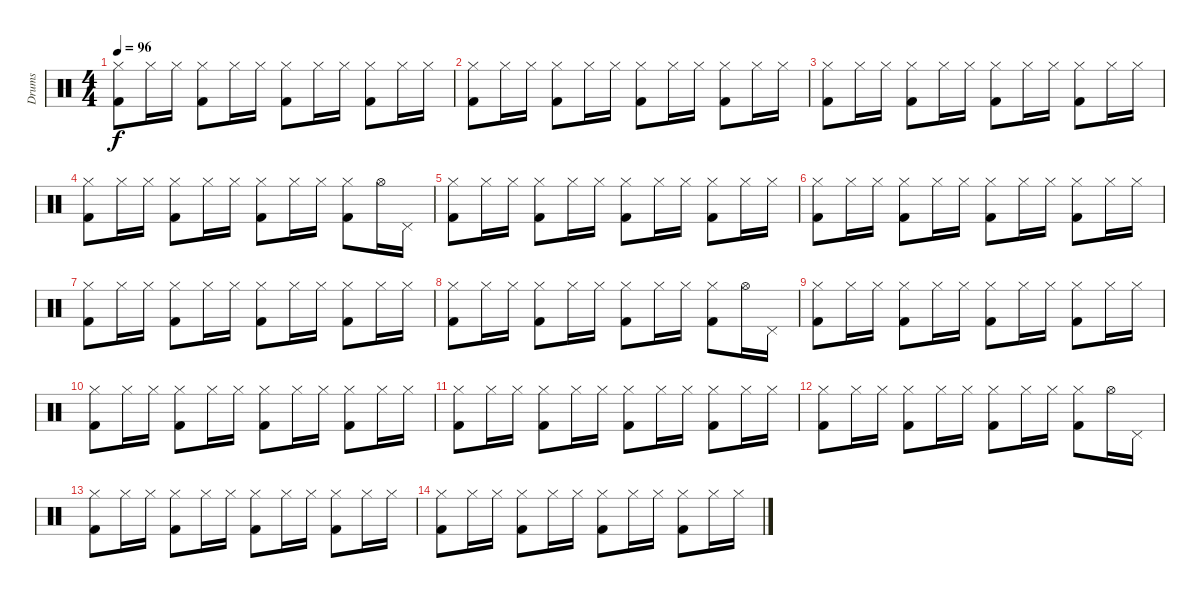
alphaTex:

\track ("Drums" "Drums") {instrument percussion}
\staff {score}
\articulation defaults
\ts (4 4)
\tempo 96
\clef neutral
\ks c
("Hi-Hat (closed)" "Kick (hit) 2").8{dy f} "Hi-Hat (closed)".16 "Hi-Hat (closed)".16 ("Hi-Hat (closed)" "Kick (hit) 2").8 "Hi-Hat (closed)".16 "Hi-Hat (closed)".16 ("Hi-Hat (closed)" "Kick (hit) 2").8 "Hi-Hat (closed)".16 "Hi-Hat (closed)".16 ("Hi-Hat (closed)" "Kick (hit) 2").8 "Hi-Hat (closed)".16 "Hi-Hat (closed)".16 |
("Hi-Hat (closed)" "Kick (hit) 2").8 "Hi-Hat (closed)".16 "Hi-Hat (closed)".16 ("Hi-Hat (closed)" "Kick (hit) 2").8 "Hi-Hat (closed)".16 "Hi-Hat (closed)".16 ("Hi-Hat (closed)" "Kick (hit) 2").8 "Hi-Hat (closed)".16 "Hi-Hat (closed)".16 ("Hi-Hat (closed)" "Kick (hit) 2").8 "Hi-Hat (closed)".16 "Hi-Hat (closed)".16 |
("Hi-Hat (closed)" "Kick (hit) 2").8 "Hi-Hat (closed)".16 "Hi-Hat (closed)".16 ("Hi-Hat (closed)" "Kick (hit) 2").8 "Hi-Hat (closed)".16 "Hi-Hat (closed)".16 ("Hi-Hat (closed)" "Kick (hit) 2").8 "Hi-Hat (closed)".16 "Hi-Hat (closed)".16 ("Hi-Hat (closed)" "Kick (hit) 2").8 "Hi-Hat (closed)".16 "Hi-Hat (closed)".16 |
("Hi-Hat (closed)" "Kick (hit) 2").8 "Hi-Hat (closed)".16 "Hi-Hat (closed)".16 ("Hi-Hat (closed)" "Kick (hit) 2").8 "Hi-Hat (closed)".16 "Hi-Hat (closed)".16 ("Hi-Hat (closed)" "Kick (hit) 2").8 "Hi-Hat (closed)".16 "Hi-Hat (closed)".16 ("Hi-Hat (closed)" "Kick (hit) 2").8 "Hi-Hat (open)".16 "Pedal Hi-Hat (hit)".16 |
("Hi-Hat (closed)" "Kick (hit) 2").8 "Hi-Hat (closed)".16 "Hi-Hat (closed)".16 ("Hi-Hat (closed)" "Kick (hit) 2").8 "Hi-Hat (closed)".16 "Hi-Hat (closed)".16 ("Hi-Hat (closed)" "Kick (hit) 2").8 "Hi-Hat (closed)".16 "Hi-Hat (closed)".16 ("Hi-Hat (closed)" "Kick (hit) 2").8 "Hi-Hat (closed)".16 "Hi-Hat (closed)".16 |
("Hi-Hat (closed)" "Kick (hit) 2").8 "Hi-Hat (closed)".16 "Hi-Hat (closed)".16 ("Hi-Hat (closed)" "Kick (hit) 2").8 "Hi-Hat (closed)".16 "Hi-Hat (closed)".16 ("Hi-Hat (closed)" "Kick (hit) 2").8 "Hi-Hat (closed)".16 "Hi-Hat (closed)".16 ("Hi-Hat (closed)" "Kick (hit) 2").8 "Hi-Hat (closed)".16 "Hi-Hat (closed)".16 |
("Hi-Hat (closed)" "Kick (hit) 2").8 "Hi-Hat (closed)".16 "Hi-Hat (closed)".16 ("Hi-Hat (closed)" "Kick (hit) 2").8 "Hi-Hat (closed)".16 "Hi-Hat (closed)".16 ("Hi-Hat (closed)" "Kick (hit) 2").8 "Hi-Hat (closed)".16 "Hi-Hat (closed)".16 ("Hi-Hat (closed)" "Kick (hit) 2").8 "Hi-Hat (closed)".16 "Hi-Hat (closed)".16 |
("Hi-Hat (closed)" "Kick (hit) 2").8 "Hi-Hat (closed)".16 "Hi-Hat (closed)".16 ("Hi-Hat (closed)" "Kick (hit) 2").8 "Hi-Hat (closed)".16 "Hi-Hat (closed)".16 ("Hi-Hat (closed)" "Kick (hit) 2").8 "Hi-Hat (closed)".16 "Hi-Hat (closed)".16 ("Hi-Hat (closed)" "Kick (hit) 2").8 "Hi-Hat (open)".16 "Pedal Hi-Hat (hit)".16 |
("Hi-Hat (closed)" "Kick (hit) 2").8 "Hi-Hat (closed)".16 "Hi-Hat (closed)".16 ("Hi-Hat (closed)" "Kick (hit) 2").8 "Hi-Hat (closed)".16 "Hi-Hat (closed)".16 ("Hi-Hat (closed)" "Kick (hit) 2").8 "Hi-Hat (closed)".16 "Hi-Hat (closed)".16 ("Hi-Hat (closed)" "Kick (hit) 2").8 "Hi-Hat (closed)".16 "Hi-Hat (closed)".16 |
("Hi-Hat (closed)" "Kick (hit) 2").8 "Hi-Hat (closed)".16 "Hi-Hat (closed)".16 ("Hi-Hat (closed)" "Kick (hit) 2").8 "Hi-Hat (closed)".16 "Hi-Hat (closed)".16 ("Hi-Hat (closed)" "Kick (hit) 2").8 "Hi-Hat (closed)".16 "Hi-Hat (closed)".16 ("Hi-Hat (closed)" "Kick (hit) 2").8 "Hi-Hat (closed)".16 "Hi-Hat (closed)".16 |
("Hi-Hat (closed)" "Kick (hit) 2").8 "Hi-Hat (closed)".16 "Hi-Hat (closed)".16 ("Hi-Hat (closed)" "Kick (hit) 2").8 "Hi-Hat (closed)".16 "Hi-Hat (closed)".16 ("Hi-Hat (closed)" "Kick (hit) 2").8 "Hi-Hat (closed)".16 "Hi-Hat (closed)".16 ("Hi-Hat (closed)" "Kick (hit) 2").8 "Hi-Hat (closed)".16 "Hi-Hat (closed)".16 |
("Hi-Hat (closed)" "Kick (hit) 2").8 "Hi-Hat (closed)".16 "Hi-Hat (closed)".16 ("Hi-Hat (closed)" "Kick (hit) 2").8 "Hi-Hat (closed)".16 "Hi-Hat (closed)".16 ("Hi-Hat (closed)" "Kick (hit) 2").8 "Hi-Hat (closed)".16 "Hi-Hat (closed)".16 ("Hi-Hat (closed)" "Kick (hit) 2").8 "Hi-Hat (open)".16 "Pedal Hi-Hat (hit)".16 |
("Hi-Hat (closed)" "Kick (hit) 2").8 "Hi-Hat (closed)".16 "Hi-Hat (closed)".16 ("Hi-Hat (closed)" "Kick (hit) 2").8 "Hi-Hat (closed)".16 "Hi-Hat (closed)".16 ("Hi-Hat (closed)" "Kick (hit) 2").8 "Hi-Hat (closed)".16 "Hi-Hat (closed)".16 ("Hi-Hat (closed)" "Kick (hit) 2").8 "Hi-Hat (closed)".16 "Hi-Hat (closed)".16 |
("Hi-Hat (closed)" "Kick (hit) 2").8 "Hi-Hat (closed)".16 "Hi-Hat (closed)".16 ("Hi-Hat (closed)" "Kick (hit) 2").8 "Hi-Hat (closed)".16 "Hi-Hat (closed)".16 ("Hi-Hat (closed)" "Kick (hit) 2").8 "Hi-Hat (closed)".16 "Hi-Hat (closed)".16 ("Hi-Hat (closed)" "Kick (hit) 2").8 "Hi-Hat (closed)".16 "Hi-Hat (closed)".16
